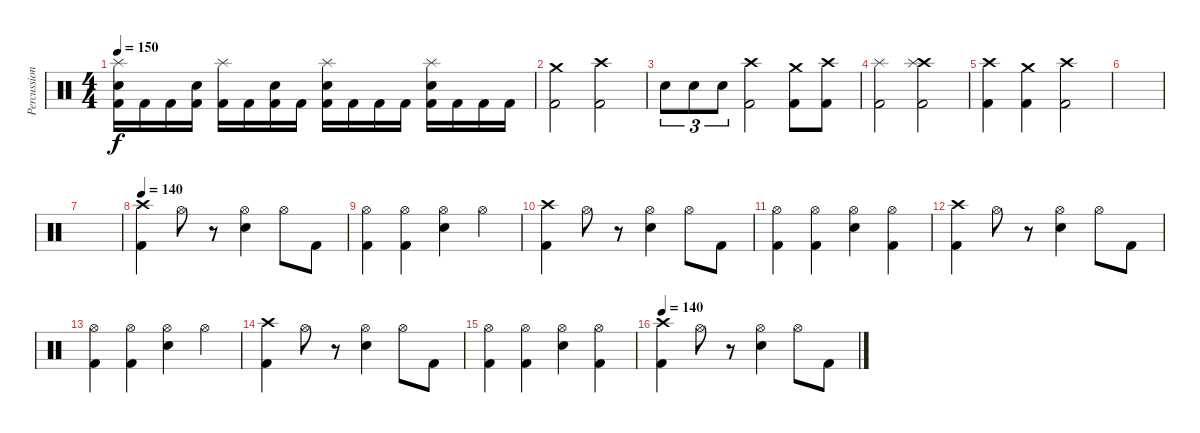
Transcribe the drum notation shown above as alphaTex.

\track ("Percussion" "Percussion") {instrument percussion}
\staff {score}
\articulation defaults
\ts (4 4)
\tempo 150
\clef neutral
\ks c
("Splash (hit)" "Snare (hit) 2" "Kick (hit) 2").16{dy f} "Kick (hit) 2".16 "Kick (hit) 2".16 ("Snare (hit) 2" "Kick (hit) 2").16 ("Splash (hit)" "Kick (hit) 2").16 "Kick (hit) 2".16 ("Snare (hit) 2" "Kick (hit) 2").16 "Kick (hit) 2".16 ("Splash (hit)" "Snare (hit) 2" "Kick (hit) 2").16 "Kick (hit) 2".16 "Kick (hit) 2".16 "Kick (hit) 2".16 ("Splash (hit)" "Snare (hit) 2" "Kick (hit) 2").16 "Kick (hit) 2".16 "Kick (hit) 2".16 "Kick (hit) 2".16 |
("Crash medium (hit)" "Kick (hit) 2").2 ("Crash high (hit)" "Kick (hit) 2").2 |
"Snare (hit) 2".8{tu (3 2)} "Snare (hit) 2".8{tu (3 2)} "Snare (hit) 2".8{tu (3 2)} ("Crash high (hit)" "Kick (hit) 2").2 ("Crash medium (hit)" "Kick (hit) 2").8 ("Crash high (hit)" "Kick (hit) 2").8 |
("Splash (hit)" "Kick (hit) 2").2 ("Crash high (hit)" "Splash (hit)" "Kick (hit) 2").2 |
("Crash high (hit)" "Kick (hit) 2").4 ("Crash medium (hit)" "Kick (hit) 2").4 ("Crash high (hit)" "Kick (hit) 2").2 |
|
|
\tempo 140
("Crash high (hit)" "Kick (hit) 2").4 "Hi-Hat (open)".8 r.8 ("Hi-Hat (open)" "Snare (hit) 2").4 "Hi-Hat (open)".8 "Kick (hit) 2".8 |
("Hi-Hat (open)" "Kick (hit) 2").4 ("Hi-Hat (open)" "Kick (hit) 2").4 ("Hi-Hat (open)" "Snare (hit) 2").4 "Hi-Hat (open)".4 |
("Crash high (hit)" "Kick (hit) 2").4 "Hi-Hat (open)".8 r.8 ("Hi-Hat (open)" "Snare (hit) 2").4 "Hi-Hat (open)".8 "Kick (hit) 2".8 |
("Hi-Hat (open)" "Kick (hit) 2").4 ("Hi-Hat (open)" "Kick (hit) 2").4 ("Hi-Hat (open)" "Snare (hit) 2").4 ("Hi-Hat (open)" "Kick (hit) 2").4 |
("Crash high (hit)" "Kick (hit) 2").4 "Hi-Hat (open)".8 r.8 ("Hi-Hat (open)" "Snare (hit) 2").4 "Hi-Hat (open)".8 "Kick (hit) 2".8 |
("Hi-Hat (open)" "Kick (hit) 2").4 ("Hi-Hat (open)" "Kick (hit) 2").4 ("Hi-Hat (open)" "Snare (hit) 2").4 "Hi-Hat (open)".4 |
("Crash high (hit)" "Kick (hit) 2").4 "Hi-Hat (open)".8 r.8 ("Hi-Hat (open)" "Snare (hit) 2").4 "Hi-Hat (open)".8 "Kick (hit) 2".8 |
("Hi-Hat (open)" "Kick (hit) 2").4 ("Hi-Hat (open)" "Kick (hit) 2").4 ("Hi-Hat (open)" "Snare (hit) 2").4 ("Hi-Hat (open)" "Kick (hit) 2").4 |
\tempo 140
("Crash high (hit)" "Kick (hit) 2").4 "Hi-Hat (open)".8 r.8 ("Hi-Hat (open)" "Snare (hit) 2").4 "Hi-Hat (open)".8 "Kick (hit) 2".8
